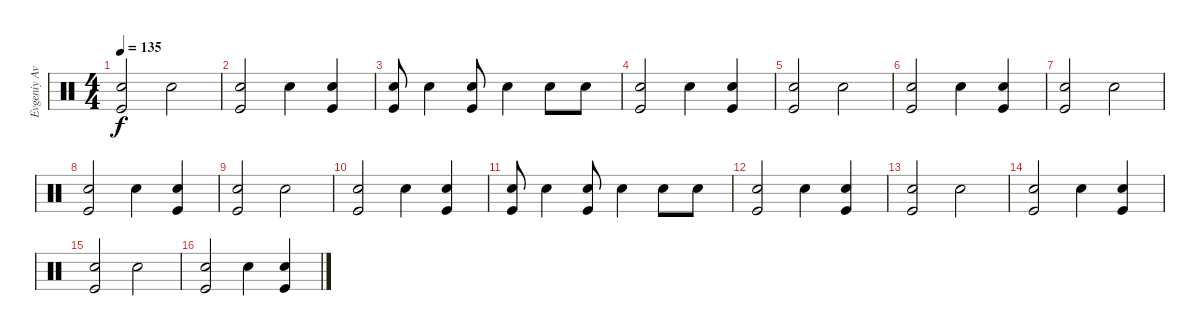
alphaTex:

\track ("Evgeniy Avdotin" "Evgeniy Av") {instrument percussion}
\staff {score}
\articulation defaults
\ts (4 4)
\tempo 135
\clef neutral
\ks c
("Snare (hit) 2" "Kick (hit)").2{dy f} "Snare (hit) 2".2 |
("Snare (hit) 2" "Kick (hit)").2 "Snare (hit) 2".4 ("Snare (hit) 2" "Kick (hit)").4 |
("Snare (hit) 2" "Kick (hit)").8 "Snare (hit) 2".4 ("Snare (hit) 2" "Kick (hit)").8 "Snare (hit) 2".4 "Snare (hit) 2".8 "Snare (hit) 2".8 |
("Snare (hit) 2" "Kick (hit)").2 "Snare (hit) 2".4 ("Snare (hit) 2" "Kick (hit)").4 |
("Snare (hit) 2" "Kick (hit)").2 "Snare (hit) 2".2 |
("Snare (hit) 2" "Kick (hit)").2 "Snare (hit) 2".4 ("Snare (hit) 2" "Kick (hit)").4 |
("Snare (hit) 2" "Kick (hit)").2 "Snare (hit) 2".2 |
("Snare (hit) 2" "Kick (hit)").2 "Snare (hit) 2".4 ("Snare (hit) 2" "Kick (hit)").4 |
("Snare (hit) 2" "Kick (hit)").2 "Snare (hit) 2".2 |
("Snare (hit) 2" "Kick (hit)").2 "Snare (hit) 2".4 ("Snare (hit) 2" "Kick (hit)").4 |
("Snare (hit) 2" "Kick (hit)").8 "Snare (hit) 2".4 ("Snare (hit) 2" "Kick (hit)").8 "Snare (hit) 2".4 "Snare (hit) 2".8 "Snare (hit) 2".8 |
("Snare (hit) 2" "Kick (hit)").2 "Snare (hit) 2".4 ("Snare (hit) 2" "Kick (hit)").4 |
("Snare (hit) 2" "Kick (hit)").2 "Snare (hit) 2".2 |
("Snare (hit) 2" "Kick (hit)").2 "Snare (hit) 2".4 ("Snare (hit) 2" "Kick (hit)").4 |
("Snare (hit) 2" "Kick (hit)").2 "Snare (hit) 2".2 |
("Snare (hit) 2" "Kick (hit)").2 "Snare (hit) 2".4 ("Snare (hit) 2" "Kick (hit)").4
